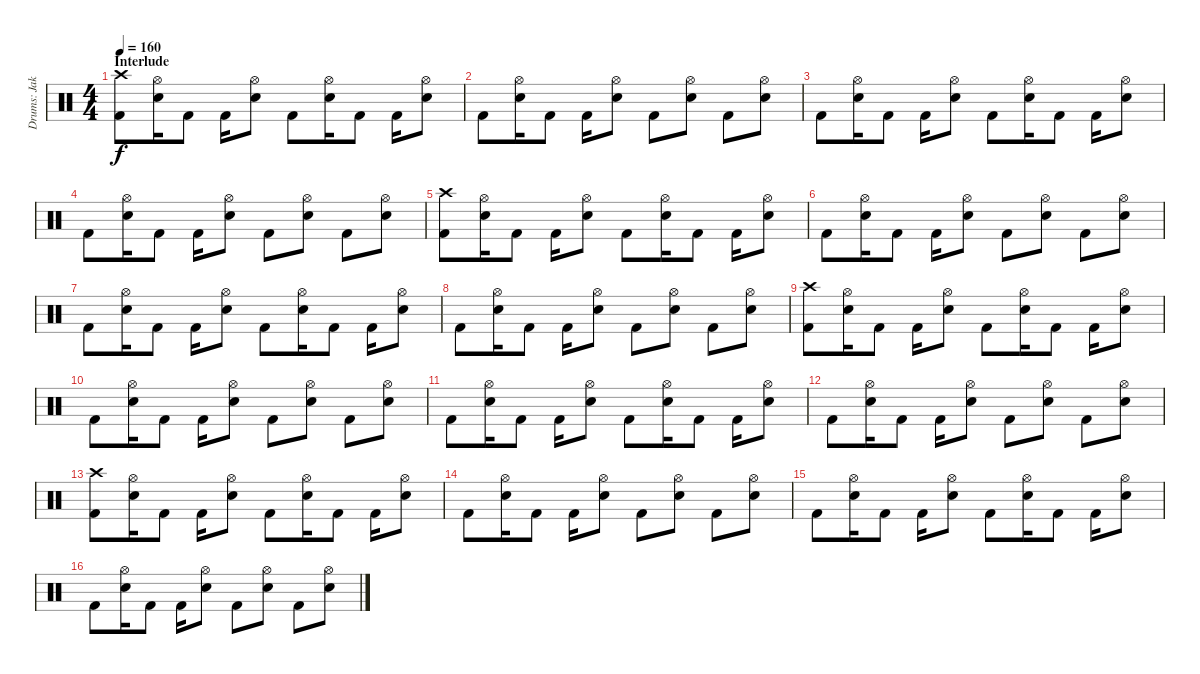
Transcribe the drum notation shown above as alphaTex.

\track ("Drums: Jake" "Drums: Jak") {instrument percussion}
\staff {score}
\articulation defaults
\ts (4 4)
\section ("" "Interlude")
\tempo 160
\clef neutral
\ks c
("Crash high (hit)" "Kick (hit) 2").8{dy f} ("Hi-Hat (open)" "Snare (hit) 2").16 "Kick (hit) 2".8 "Kick (hit) 2".16 ("Hi-Hat (open)" "Snare (hit) 2").8 "Kick (hit) 2".8 ("Hi-Hat (open)" "Snare (hit) 2").16 "Kick (hit) 2".8 "Kick (hit) 2".16 ("Hi-Hat (open)" "Snare (hit) 2").8 |
"Kick (hit) 2".8 ("Hi-Hat (open)" "Snare (hit) 2").16 "Kick (hit) 2".8 "Kick (hit) 2".16 ("Hi-Hat (open)" "Snare (hit) 2").8 "Kick (hit) 2".8 ("Hi-Hat (open)" "Snare (hit) 2").8 "Kick (hit) 2".8 ("Hi-Hat (open)" "Snare (hit) 2").8 |
"Kick (hit) 2".8 ("Hi-Hat (open)" "Snare (hit) 2").16 "Kick (hit) 2".8 "Kick (hit) 2".16 ("Hi-Hat (open)" "Snare (hit) 2").8 "Kick (hit) 2".8 ("Hi-Hat (open)" "Snare (hit) 2").16 "Kick (hit) 2".8 "Kick (hit) 2".16 ("Hi-Hat (open)" "Snare (hit) 2").8 |
"Kick (hit) 2".8 ("Hi-Hat (open)" "Snare (hit) 2").16 "Kick (hit) 2".8 "Kick (hit) 2".16 ("Hi-Hat (open)" "Snare (hit) 2").8 "Kick (hit) 2".8 ("Hi-Hat (open)" "Snare (hit) 2").8 "Kick (hit) 2".8 ("Hi-Hat (open)" "Snare (hit) 2").8 |
("Crash high (hit)" "Kick (hit) 2").8 ("Hi-Hat (open)" "Snare (hit) 2").16 "Kick (hit) 2".8 "Kick (hit) 2".16 ("Hi-Hat (open)" "Snare (hit) 2").8 "Kick (hit) 2".8 ("Hi-Hat (open)" "Snare (hit) 2").16 "Kick (hit) 2".8 "Kick (hit) 2".16 ("Hi-Hat (open)" "Snare (hit) 2").8 |
"Kick (hit) 2".8 ("Hi-Hat (open)" "Snare (hit) 2").16 "Kick (hit) 2".8 "Kick (hit) 2".16 ("Hi-Hat (open)" "Snare (hit) 2").8 "Kick (hit) 2".8 ("Hi-Hat (open)" "Snare (hit) 2").8 "Kick (hit) 2".8 ("Hi-Hat (open)" "Snare (hit) 2").8 |
"Kick (hit) 2".8 ("Hi-Hat (open)" "Snare (hit) 2").16 "Kick (hit) 2".8 "Kick (hit) 2".16 ("Hi-Hat (open)" "Snare (hit) 2").8 "Kick (hit) 2".8 ("Hi-Hat (open)" "Snare (hit) 2").16 "Kick (hit) 2".8 "Kick (hit) 2".16 ("Hi-Hat (open)" "Snare (hit) 2").8 |
"Kick (hit) 2".8 ("Hi-Hat (open)" "Snare (hit) 2").16 "Kick (hit) 2".8 "Kick (hit) 2".16 ("Hi-Hat (open)" "Snare (hit) 2").8 "Kick (hit) 2".8 ("Hi-Hat (open)" "Snare (hit) 2").8 "Kick (hit) 2".8 ("Hi-Hat (open)" "Snare (hit) 2").8 |
("Crash high (hit)" "Kick (hit) 2").8 ("Hi-Hat (open)" "Snare (hit) 2").16 "Kick (hit) 2".8 "Kick (hit) 2".16 ("Hi-Hat (open)" "Snare (hit) 2").8 "Kick (hit) 2".8 ("Hi-Hat (open)" "Snare (hit) 2").16 "Kick (hit) 2".8 "Kick (hit) 2".16 ("Hi-Hat (open)" "Snare (hit) 2").8 |
"Kick (hit) 2".8 ("Hi-Hat (open)" "Snare (hit) 2").16 "Kick (hit) 2".8 "Kick (hit) 2".16 ("Hi-Hat (open)" "Snare (hit) 2").8 "Kick (hit) 2".8 ("Hi-Hat (open)" "Snare (hit) 2").8 "Kick (hit) 2".8 ("Hi-Hat (open)" "Snare (hit) 2").8 |
"Kick (hit) 2".8 ("Hi-Hat (open)" "Snare (hit) 2").16 "Kick (hit) 2".8 "Kick (hit) 2".16 ("Hi-Hat (open)" "Snare (hit) 2").8 "Kick (hit) 2".8 ("Hi-Hat (open)" "Snare (hit) 2").16 "Kick (hit) 2".8 "Kick (hit) 2".16 ("Hi-Hat (open)" "Snare (hit) 2").8 |
"Kick (hit) 2".8 ("Hi-Hat (open)" "Snare (hit) 2").16 "Kick (hit) 2".8 "Kick (hit) 2".16 ("Hi-Hat (open)" "Snare (hit) 2").8 "Kick (hit) 2".8 ("Hi-Hat (open)" "Snare (hit) 2").8 "Kick (hit) 2".8 ("Hi-Hat (open)" "Snare (hit) 2").8 |
("Crash high (hit)" "Kick (hit) 2").8 ("Hi-Hat (open)" "Snare (hit) 2").16 "Kick (hit) 2".8 "Kick (hit) 2".16 ("Hi-Hat (open)" "Snare (hit) 2").8 "Kick (hit) 2".8 ("Hi-Hat (open)" "Snare (hit) 2").16 "Kick (hit) 2".8 "Kick (hit) 2".16 ("Hi-Hat (open)" "Snare (hit) 2").8 |
"Kick (hit) 2".8 ("Hi-Hat (open)" "Snare (hit) 2").16 "Kick (hit) 2".8 "Kick (hit) 2".16 ("Hi-Hat (open)" "Snare (hit) 2").8 "Kick (hit) 2".8 ("Hi-Hat (open)" "Snare (hit) 2").8 "Kick (hit) 2".8 ("Hi-Hat (open)" "Snare (hit) 2").8 |
"Kick (hit) 2".8 ("Hi-Hat (open)" "Snare (hit) 2").16 "Kick (hit) 2".8 "Kick (hit) 2".16 ("Hi-Hat (open)" "Snare (hit) 2").8 "Kick (hit) 2".8 ("Hi-Hat (open)" "Snare (hit) 2").16 "Kick (hit) 2".8 "Kick (hit) 2".16 ("Hi-Hat (open)" "Snare (hit) 2").8 |
"Kick (hit) 2".8 ("Hi-Hat (open)" "Snare (hit) 2").16 "Kick (hit) 2".8 "Kick (hit) 2".16 ("Hi-Hat (open)" "Snare (hit) 2").8 "Kick (hit) 2".8 ("Hi-Hat (open)" "Snare (hit) 2").8 "Kick (hit) 2".8 ("Hi-Hat (open)" "Snare (hit) 2").8
